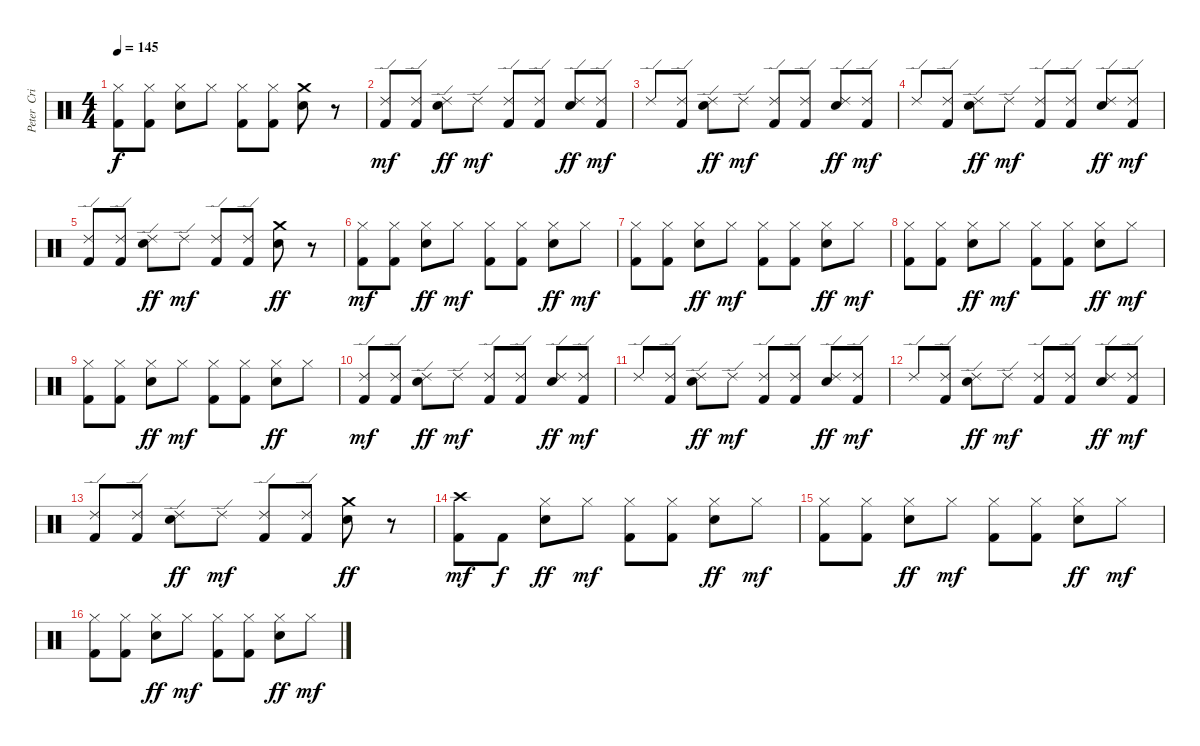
\track ("Peter  Criss [Drums]" "Peter  Cri") {instrument percussion}
\staff {score}
\articulation defaults
\ts (4 4)
\tempo 145
\clef neutral
\ks c
("Hi-Hat (closed)" "Kick (hit) 2").8{dy f} ("Hi-Hat (closed)" "Kick (hit) 2").8 ("Hi-Hat (closed)" "Electric Snare (hit)").8 "Hi-Hat (closed)".8 ("Hi-Hat (closed)" "Kick (hit) 2").8 ("Hi-Hat (closed)" "Kick (hit) 2").8 ("Crash medium (hit)" "Electric Snare (hit)").8 r.8 |
("Ride (edge) 2" "Kick (hit) 2").8{dy mf} ("Ride (edge) 2" "Kick (hit) 2").8 ("Ride (edge) 2" "Electric Snare (hit)").8{dy ff} "Ride (edge) 2".8{dy mf} ("Ride (edge) 2" "Kick (hit) 2").8 ("Ride (edge) 2" "Kick (hit) 2").8 ("Ride (edge) 2" "Electric Snare (hit)").8{dy ff} ("Ride (edge) 2" "Kick (hit) 2").8{dy mf} |
"Ride (edge) 2".8 ("Ride (edge) 2" "Kick (hit) 2").8 ("Ride (edge) 2" "Electric Snare (hit)").8{dy ff} "Ride (edge) 2".8{dy mf} ("Ride (edge) 2" "Kick (hit) 2").8 ("Ride (edge) 2" "Kick (hit) 2").8 ("Ride (edge) 2" "Electric Snare (hit)").8{dy ff} ("Ride (edge) 2" "Kick (hit) 2").8{dy mf} |
"Ride (edge) 2".8 ("Ride (edge) 2" "Kick (hit) 2").8 ("Ride (edge) 2" "Electric Snare (hit)").8{dy ff} "Ride (edge) 2".8{dy mf} ("Ride (edge) 2" "Kick (hit) 2").8 ("Ride (edge) 2" "Kick (hit) 2").8 ("Ride (edge) 2" "Electric Snare (hit)").8{dy ff} ("Ride (edge) 2" "Kick (hit) 2").8{dy mf} |
("Ride (edge) 2" "Kick (hit) 2").8 ("Ride (edge) 2" "Kick (hit) 2").8 ("Ride (edge) 2" "Electric Snare (hit)").8{dy ff} "Ride (edge) 2".8{dy mf} ("Ride (edge) 2" "Kick (hit) 2").8 ("Ride (edge) 2" "Kick (hit) 2").8 ("Crash medium (hit)" "Electric Snare (hit)").8{dy ff} r.8 |
("Hi-Hat (closed)" "Kick (hit) 2").8{dy mf} ("Hi-Hat (closed)" "Kick (hit) 2").8 ("Hi-Hat (closed)" "Electric Snare (hit)").8{dy ff} "Hi-Hat (closed)".8{dy mf} ("Hi-Hat (closed)" "Kick (hit) 2").8 ("Hi-Hat (closed)" "Kick (hit) 2").8 ("Hi-Hat (closed)" "Electric Snare (hit)").8{dy ff} "Hi-Hat (closed)".8{dy mf} |
("Hi-Hat (closed)" "Kick (hit) 2").8 ("Hi-Hat (closed)" "Kick (hit) 2").8 ("Hi-Hat (closed)" "Electric Snare (hit)").8{dy ff} "Hi-Hat (closed)".8{dy mf} ("Hi-Hat (closed)" "Kick (hit) 2").8 ("Hi-Hat (closed)" "Kick (hit) 2").8 ("Hi-Hat (closed)" "Electric Snare (hit)").8{dy ff} "Hi-Hat (closed)".8{dy mf} |
("Hi-Hat (closed)" "Kick (hit) 2").8 ("Hi-Hat (closed)" "Kick (hit) 2").8 ("Hi-Hat (closed)" "Electric Snare (hit)").8{dy ff} "Hi-Hat (closed)".8{dy mf} ("Hi-Hat (closed)" "Kick (hit) 2").8 ("Hi-Hat (closed)" "Kick (hit) 2").8 ("Hi-Hat (closed)" "Electric Snare (hit)").8{dy ff} "Hi-Hat (closed)".8{dy mf} |
("Hi-Hat (closed)" "Kick (hit) 2").8 ("Hi-Hat (closed)" "Kick (hit) 2").8 ("Hi-Hat (closed)" "Electric Snare (hit)").8{dy ff} "Hi-Hat (closed)".8{dy mf} ("Hi-Hat (closed)" "Kick (hit) 2").8 ("Hi-Hat (closed)" "Kick (hit) 2").8 ("Hi-Hat (closed)" "Electric Snare (hit)").8{dy ff} "Hi-Hat (closed)".8 |
("Ride (edge) 2" "Kick (hit) 2").8{dy mf} ("Ride (edge) 2" "Kick (hit) 2").8 ("Ride (edge) 2" "Electric Snare (hit)").8{dy ff} "Ride (edge) 2".8{dy mf} ("Ride (edge) 2" "Kick (hit) 2").8 ("Ride (edge) 2" "Kick (hit) 2").8 ("Ride (edge) 2" "Electric Snare (hit)").8{dy ff} ("Ride (edge) 2" "Kick (hit) 2").8{dy mf} |
"Ride (edge) 2".8 ("Ride (edge) 2" "Kick (hit) 2").8 ("Ride (edge) 2" "Electric Snare (hit)").8{dy ff} "Ride (edge) 2".8{dy mf} ("Ride (edge) 2" "Kick (hit) 2").8 ("Ride (edge) 2" "Kick (hit) 2").8 ("Ride (edge) 2" "Electric Snare (hit)").8{dy ff} ("Ride (edge) 2" "Kick (hit) 2").8{dy mf} |
"Ride (edge) 2".8 ("Ride (edge) 2" "Kick (hit) 2").8 ("Ride (edge) 2" "Electric Snare (hit)").8{dy ff} "Ride (edge) 2".8{dy mf} ("Ride (edge) 2" "Kick (hit) 2").8 ("Ride (edge) 2" "Kick (hit) 2").8 ("Ride (edge) 2" "Electric Snare (hit)").8{dy ff} ("Ride (edge) 2" "Kick (hit) 2").8{dy mf} |
("Ride (edge) 2" "Kick (hit) 2").8 ("Ride (edge) 2" "Kick (hit) 2").8 ("Ride (edge) 2" "Electric Snare (hit)").8{dy ff} "Ride (edge) 2".8{dy mf} ("Ride (edge) 2" "Kick (hit) 2").8 ("Ride (edge) 2" "Kick (hit) 2").8 ("Crash medium (hit)" "Electric Snare (hit)").8{dy ff} r.8 |
("Crash high (hit)" "Kick (hit) 2").8{dy mf} "Kick (hit) 2".8{dy f} ("Hi-Hat (closed)" "Electric Snare (hit)").8{dy ff} "Hi-Hat (closed)".8{dy mf} ("Hi-Hat (closed)" "Kick (hit) 2").8 ("Hi-Hat (closed)" "Kick (hit) 2").8 ("Hi-Hat (closed)" "Electric Snare (hit)").8{dy ff} "Hi-Hat (closed)".8{dy mf} |
("Hi-Hat (closed)" "Kick (hit) 2").8 ("Hi-Hat (closed)" "Kick (hit) 2").8 ("Hi-Hat (closed)" "Electric Snare (hit)").8{dy ff} "Hi-Hat (closed)".8{dy mf} ("Hi-Hat (closed)" "Kick (hit) 2").8 ("Hi-Hat (closed)" "Kick (hit) 2").8 ("Hi-Hat (closed)" "Electric Snare (hit)").8{dy ff} "Hi-Hat (closed)".8{dy mf} |
("Hi-Hat (closed)" "Kick (hit) 2").8 ("Hi-Hat (closed)" "Kick (hit) 2").8 ("Hi-Hat (closed)" "Electric Snare (hit)").8{dy ff} "Hi-Hat (closed)".8{dy mf} ("Hi-Hat (closed)" "Kick (hit) 2").8 ("Hi-Hat (closed)" "Kick (hit) 2").8 ("Hi-Hat (closed)" "Electric Snare (hit)").8{dy ff} "Hi-Hat (closed)".8{dy mf}
